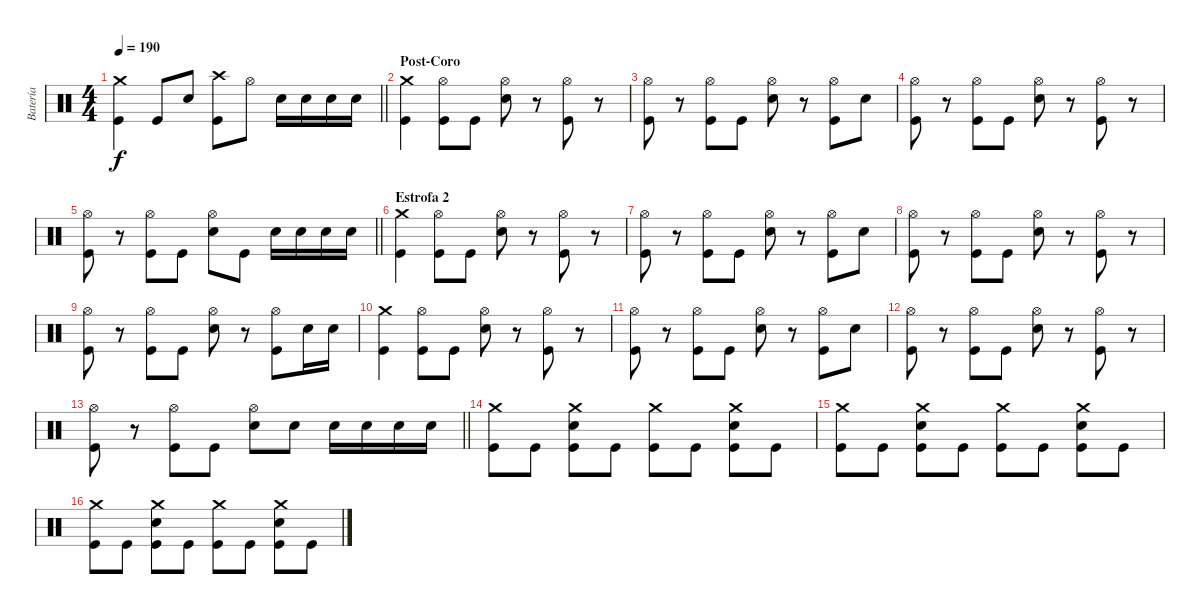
\track ("Batería" "Batería") {instrument percussion}
\staff {score}
\articulation defaults
\ts (4 4)
\tempo 190
\clef neutral
\barLineRight lightlight
\ks c
("Crash medium (hit)" "Kick (hit)").4{dy f} "Kick (hit)".8 "Electric Snare (hit)".8 ("Crash high (hit)" "Kick (hit)").8 "Hi-Hat (open)".8 "Electric Snare (hit)".16 "Electric Snare (hit)".16 "Electric Snare (hit)".16 "Electric Snare (hit)".16 |
\section ("" "Post-Coro")
("Crash medium (hit)" "Kick (hit)").4 ("Hi-Hat (open)" "Kick (hit)").8 "Kick (hit)".8 ("Hi-Hat (open)" "Electric Snare (hit)").8 r.8 ("Hi-Hat (open)" "Kick (hit)").8 r.8 |
("Hi-Hat (open)" "Kick (hit)").8 r.8 ("Hi-Hat (open)" "Kick (hit)").8 "Kick (hit)".8 ("Hi-Hat (open)" "Electric Snare (hit)").8 r.8 ("Hi-Hat (open)" "Kick (hit)").8 "Electric Snare (hit)".8 |
("Hi-Hat (open)" "Kick (hit)").8 r.8 ("Hi-Hat (open)" "Kick (hit)").8 "Kick (hit)".8 ("Hi-Hat (open)" "Electric Snare (hit)").8 r.8 ("Hi-Hat (open)" "Kick (hit)").8 r.8 |
\barLineRight lightlight
("Hi-Hat (open)" "Kick (hit)").8 r.8 ("Hi-Hat (open)" "Kick (hit)").8 "Kick (hit)".8 ("Hi-Hat (open)" "Electric Snare (hit)").8 "Kick (hit)".8 "Electric Snare (hit)".16 "Electric Snare (hit)".16 "Electric Snare (hit)".16 "Electric Snare (hit)".16 |
\section ("" "Estrofa 2")
("Crash medium (hit)" "Kick (hit)").4 ("Hi-Hat (open)" "Kick (hit)").8 "Kick (hit)".8 ("Hi-Hat (open)" "Electric Snare (hit)").8 r.8 ("Hi-Hat (open)" "Kick (hit)").8 r.8 |
("Hi-Hat (open)" "Kick (hit)").8 r.8 ("Hi-Hat (open)" "Kick (hit)").8 "Kick (hit)".8 ("Hi-Hat (open)" "Electric Snare (hit)").8 r.8 ("Hi-Hat (open)" "Kick (hit)").8 "Electric Snare (hit)".8 |
("Hi-Hat (open)" "Kick (hit)").8 r.8 ("Hi-Hat (open)" "Kick (hit)").8 "Kick (hit)".8 ("Hi-Hat (open)" "Electric Snare (hit)").8 r.8 ("Hi-Hat (open)" "Kick (hit)").8 r.8 |
("Hi-Hat (open)" "Kick (hit)").8 r.8 ("Hi-Hat (open)" "Kick (hit)").8 "Kick (hit)".8 ("Hi-Hat (open)" "Electric Snare (hit)").8 r.8 ("Hi-Hat (open)" "Kick (hit)").8 "Electric Snare (hit)".16 "Electric Snare (hit)".16 |
("Crash medium (hit)" "Kick (hit)").4 ("Hi-Hat (open)" "Kick (hit)").8 "Kick (hit)".8 ("Hi-Hat (open)" "Electric Snare (hit)").8 r.8 ("Hi-Hat (open)" "Kick (hit)").8 r.8 |
("Hi-Hat (open)" "Kick (hit)").8 r.8 ("Hi-Hat (open)" "Kick (hit)").8 "Kick (hit)".8 ("Hi-Hat (open)" "Electric Snare (hit)").8 r.8 ("Hi-Hat (open)" "Kick (hit)").8 "Electric Snare (hit)".8 |
("Hi-Hat (open)" "Kick (hit)").8 r.8 ("Hi-Hat (open)" "Kick (hit)").8 "Kick (hit)".8 ("Hi-Hat (open)" "Electric Snare (hit)").8 r.8 ("Hi-Hat (open)" "Kick (hit)").8 r.8 |
\barLineRight lightlight
("Hi-Hat (open)" "Kick (hit)").8 r.8 ("Hi-Hat (open)" "Kick (hit)").8 "Kick (hit)".8 ("Hi-Hat (open)" "Electric Snare (hit)").8 "Electric Snare (hit)".8 "Electric Snare (hit)".16 "Electric Snare (hit)".16 "Electric Snare (hit)".16 "Electric Snare (hit)".16 |
("Crash medium (hit)" "Kick (hit)").8 "Kick (hit)".8 ("Crash medium (hit)" "Electric Snare (hit)" "Kick (hit)").8 "Kick (hit)".8 ("Crash medium (hit)" "Kick (hit)").8 "Kick (hit)".8 ("Crash medium (hit)" "Electric Snare (hit)" "Kick (hit)").8 "Kick (hit)".8 |
("Crash medium (hit)" "Kick (hit)").8 "Kick (hit)".8 ("Crash medium (hit)" "Electric Snare (hit)" "Kick (hit)").8 "Kick (hit)".8 ("Crash medium (hit)" "Kick (hit)").8 "Kick (hit)".8 ("Crash medium (hit)" "Electric Snare (hit)" "Kick (hit)").8 "Kick (hit)".8 |
("Crash medium (hit)" "Kick (hit)").8 "Kick (hit)".8 ("Crash medium (hit)" "Electric Snare (hit)" "Kick (hit)").8 "Kick (hit)".8 ("Crash medium (hit)" "Kick (hit)").8 "Kick (hit)".8 ("Crash medium (hit)" "Electric Snare (hit)" "Kick (hit)").8 "Kick (hit)".8
